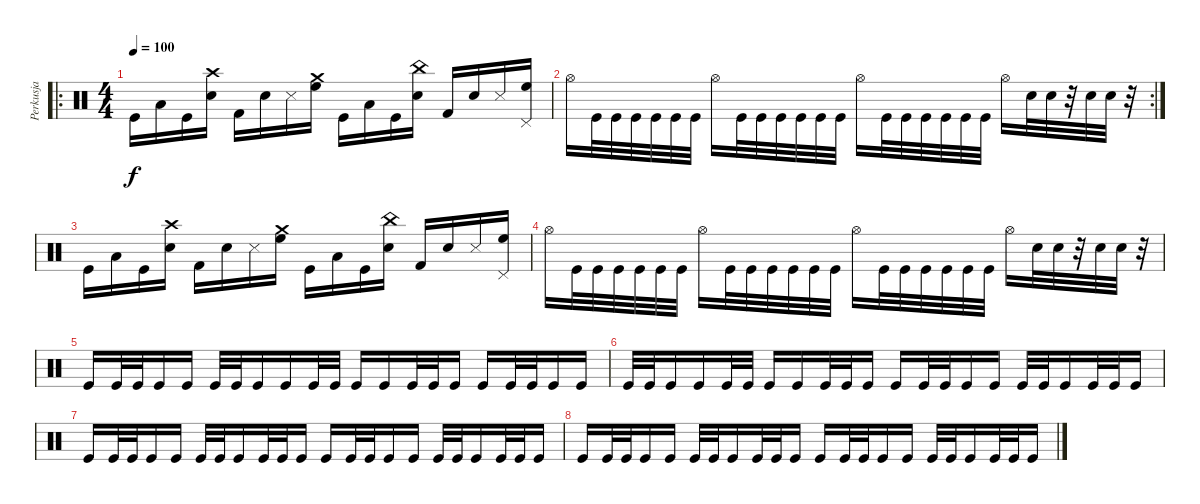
\track ("Perkusja" "Perkusja") {instrument percussion}
\staff {score}
\articulation defaults
\ro
\ts (4 4)
\tempo 100
\clef neutral
\ks c "Kick (hit)".16{dy f} "Low Tom (hit)".16 "Kick (hit)".16
("Crash high (hit)" "Electric Snare (hit)").16 "Kick (hit) 2".16 "Snare (hit) 2".16 "Metronome (hit)".16 ("Crash medium (hit)" "High Floor Tom (hit)").16 "Kick (hit)".16 "Low Tom (hit)".16 "Kick (hit)".16 ("China (hit)" "Electric Snare (hit)").16 "Kick (hit) 2".16 "Snare (hit) 2".16 "Metronome (hit)".16 ("Pedal Hi-Hat (hit)" "High Floor Tom (hit)").16 |
\rc 2 "Hi-Hat (open)".16 "Kick (hit)".32 "Kick (hit)".32 "Kick (hit)".32 "Kick (hit)".32 "Kick (hit)".32 "Kick (hit)".32 "Hi-Hat (open)".16 "Kick (hit)".32 "Kick (hit)".32 "Kick (hit)".32 "Kick (hit)".32 "Kick (hit)".32 "Kick (hit)".32 "Hi-Hat (open)".16 "Kick (hit)".32 "Kick (hit)".32 "Kick (hit)".32 "Kick (hit)".32 "Kick (hit)".32 "Kick (hit)".32 "Hi-Hat (open)".16 "Electric Snare (hit)".32 "Electric Snare (hit)".32
r.32 "Electric Snare (hit)".32 "Electric Snare (hit)".32 r.32 |
"Kick (hit)".16 "Low Tom (hit)".16 "Kick (hit)".16 ("Crash high (hit)" "Electric Snare (hit)").16 "Kick (hit) 2".16 "Snare (hit) 2".16 "Metronome (hit)".16 ("Crash medium (hit)" "High Floor Tom (hit)").16 "Kick (hit)".16 "Low Tom (hit)".16 "Kick (hit)".16 ("China (hit)" "Electric Snare (hit)").16 "Kick (hit) 2".16 "Snare (hit) 2".16 "Metronome (hit)".16 ("Pedal Hi-Hat (hit)" "High Floor Tom (hit)").16 |
"Hi-Hat (open)".16 "Kick (hit)".32 "Kick (hit)".32 "Kick (hit)".32 "Kick (hit)".32 "Kick (hit)".32 "Kick (hit)".32 "Hi-Hat (open)".16 "Kick (hit)".32 "Kick (hit)".32 "Kick (hit)".32 "Kick (hit)".32 "Kick (hit)".32 "Kick (hit)".32 "Hi-Hat (open)".16 "Kick (hit)".32 "Kick (hit)".32 "Kick (hit)".32 "Kick (hit)".32 "Kick (hit)".32 "Kick (hit)".32 "Hi-Hat (open)".16 "Electric Snare (hit)".32 "Electric Snare (hit)".32 r.32 "Electric Snare (hit)".32 "Electric Snare (hit)".32 r.32 |
"Kick (hit)".16 "Kick (hit)".32 "Kick (hit)".32 "Kick (hit)".16 "Kick (hit)".16 "Kick (hit)".32 "Kick (hit)".32 "Kick (hit)".16 "Kick (hit)".16 "Kick (hit)".32 "Kick (hit)".32 "Kick (hit)".16 "Kick (hit)".16 "Kick (hit)".32 "Kick (hit)".32 "Kick (hit)".16 "Kick (hit)".16 "Kick (hit)".32 "Kick (hit)".32 "Kick (hit)".16 "Kick (hit)".16 |
"Kick (hit)".32 "Kick (hit)".32 "Kick (hit)".16 "Kick (hit)".16 "Kick (hit)".32 "Kick (hit)".32 "Kick (hit)".16 "Kick (hit)".16 "Kick (hit)".32 "Kick (hit)".32 "Kick (hit)".16 "Kick (hit)".16 "Kick (hit)".32 "Kick (hit)".32 "Kick (hit)".16 "Kick (hit)".16 "Kick (hit)".32 "Kick (hit)".32 "Kick (hit)".16 "Kick (hit)".32 "Kick (hit)".32 "Kick (hit)".16 |
"Kick (hit)".16 "Kick (hit)".32 "Kick (hit)".32 "Kick (hit)".16 "Kick (hit)".16 "Kick (hit)".32 "Kick (hit)".32 "Kick (hit)".16 "Kick (hit)".32 "Kick (hit)".32 "Kick (hit)".16 "Kick (hit)".16 "Kick (hit)".32 "Kick (hit)".32 "Kick (hit)".16 "Kick (hit)".16 "Kick (hit)".32 "Kick (hit)".32 "Kick (hit)".16 "Kick (hit)".32 "Kick (hit)".32 "Kick (hit)".16 |
"Kick (hit)".16 "Kick (hit)".32 "Kick (hit)".32 "Kick (hit)".16 "Kick (hit)".16 "Kick (hit)".32 "Kick (hit)".32 "Kick (hit)".16 "Kick (hit)".32 "Kick (hit)".32 "Kick (hit)".16 "Kick (hit)".16 "Kick (hit)".32 "Kick (hit)".32 "Kick (hit)".16 "Kick (hit)".16 "Kick (hit)".32 "Kick (hit)".32 "Kick (hit)".16 "Kick (hit)".32 "Kick (hit)".32 "Kick (hit)".16
